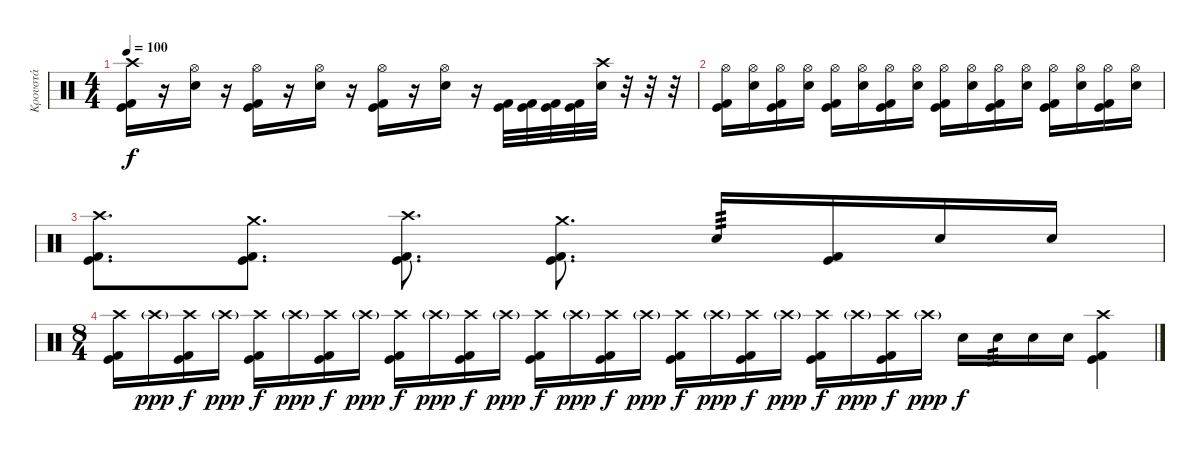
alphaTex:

\track ("Κρουστά" "Κρουστά") {instrument percussion}
\staff {score}
\articulation defaults
\ts (4 4)
\tempo 100
\clef neutral
\ks c
("Crash high (hit)" "Kick (hit)" "Kick (hit) 2").16{dy f} r.16 ("Hi-Hat (open)" "Snare (hit) 2").16 r.16 ("Hi-Hat (open)" "Kick (hit)" "Kick (hit) 2").16 r.16 ("Hi-Hat (open)" "Snare (hit) 2").16 r.16 ("Hi-Hat (open)" "Kick (hit)" "Kick (hit) 2").16 r.16 ("Hi-Hat (open)" "Snare (hit) 2").16 r.16 ("Kick (hit)" "Kick (hit) 2").32 ("Kick (hit)" "Kick (hit) 2").32 ("Kick (hit)" "Kick (hit) 2").32 ("Kick (hit)" "Kick (hit) 2").32 ("Crash high (hit)" "Snare (hit) 2").32 r.32 r.32 r.32 |
("Hi-Hat (open)" "Kick (hit)" "Kick (hit) 2").16 ("Hi-Hat (open)" "Snare (hit) 2").16 ("Hi-Hat (open)" "Kick (hit)" "Kick (hit) 2").16 ("Hi-Hat (open)" "Snare (hit) 2").16 ("Hi-Hat (open)" "Kick (hit)" "Kick (hit) 2").16 ("Hi-Hat (open)" "Snare (hit) 2").16 ("Hi-Hat (open)" "Kick (hit)" "Kick (hit) 2").16 ("Hi-Hat (open)" "Snare (hit) 2").16 ("Hi-Hat (open)" "Kick (hit)" "Kick (hit) 2").16 ("Hi-Hat (open)" "Snare (hit) 2").16 ("Hi-Hat (open)" "Kick (hit)" "Kick (hit) 2").16 ("Hi-Hat (open)" "Snare (hit) 2").16 ("Hi-Hat (open)" "Kick (hit)" "Kick (hit) 2").16 ("Hi-Hat (open)" "Snare (hit) 2").16 ("Hi-Hat (open)" "Kick (hit)" "Kick (hit) 2").16 ("Hi-Hat (open)" "Snare (hit) 2").16 |
("Crash high (hit)" "Kick (hit)" "Kick (hit) 2").8{d} ("Crash medium (hit)" "Kick (hit)" "Kick (hit) 2").8{d} ("Crash high (hit)" "Kick (hit)" "Kick (hit) 2").8{d} ("Crash medium (hit)" "Kick (hit)" "Kick (hit) 2").8{d} "Snare (hit) 2".16{tp 3} ("Kick (hit)" "Kick (hit) 2").16 "Snare (hit) 2".16 "Snare (hit) 2".16 |
\ts (8 4)
("Crash high (hit)" "Kick (hit)" "Kick (hit) 2").16 "Crash high (hit)"{g}.16{dy ppp} ("Crash high (hit)" "Kick (hit)" "Kick (hit) 2").16{dy f} "Crash high (hit)"{g}.16{dy ppp} ("Crash high (hit)" "Kick (hit)" "Kick (hit) 2").16{dy f} "Crash high (hit)"{g}.16{dy ppp} ("Crash high (hit)" "Kick (hit)" "Kick (hit) 2").16{dy f} "Crash high (hit)"{g}.16{dy ppp} ("Crash high (hit)" "Kick (hit)" "Kick (hit) 2").16{dy f} "Crash high (hit)"{g}.16{dy ppp} ("Crash high (hit)" "Kick (hit)" "Kick (hit) 2").16{dy f} "Crash high (hit)"{g}.16{dy ppp} ("Crash high (hit)" "Kick (hit)" "Kick (hit) 2").16{dy f} "Crash high (hit)"{g}.16{dy ppp} ("Crash high (hit)" "Kick (hit)" "Kick (hit) 2").16{dy f} "Crash high (hit)"{g}.16{dy ppp} ("Crash high (hit)" "Kick (hit)" "Kick (hit) 2").16{dy f} "Crash high (hit)"{g}.16{dy ppp} ("Crash high (hit)" "Kick (hit)" "Kick (hit) 2").16{dy f} "Crash high (hit)"{g}.16{dy ppp} ("Crash high (hit)" "Kick (hit)" "Kick (hit) 2").16{dy f} "Crash high (hit)"{g}.16{dy ppp} ("Crash high (hit)" "Kick (hit)" "Kick (hit) 2").16{dy f} "Crash high (hit)"{g}.16{dy ppp} "Snare (hit) 2".16{dy f} "Snare (hit) 2".16{tp 3} "Snare (hit) 2".16 "Snare (hit) 2".16 ("Crash high (hit)" "Kick (hit)" "Kick (hit) 2").4
